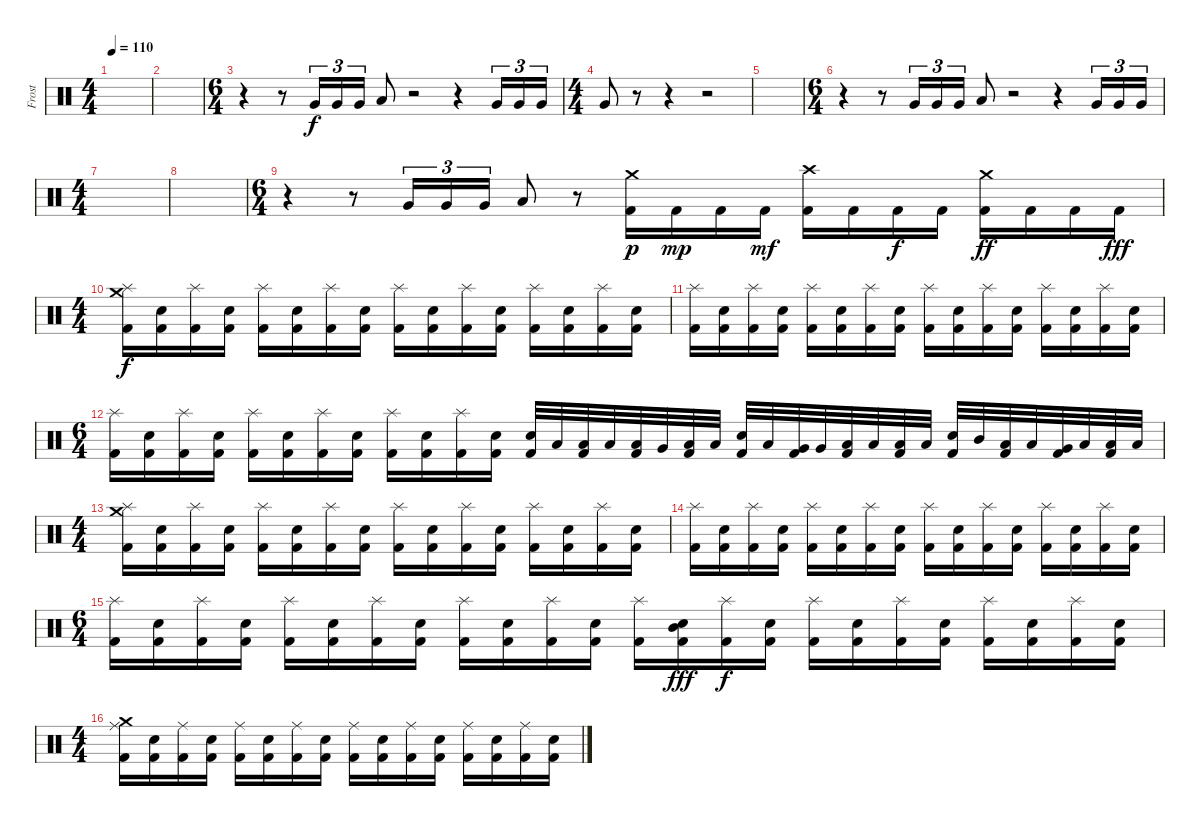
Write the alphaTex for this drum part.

\track ("Frost" "Frost") {instrument percussion}
\staff {score}
\articulation defaults
\ts (4 4)
\tempo 110
\tempo 147
\tempo 110
\clef neutral
\ks c
|
|
\ts (6 4)
r.4 r.8 "Very Low Tom (hit)".16{tu (3 2)} "Very Low Tom (hit)".16{tu (3 2)} "Very Low Tom (hit)".16{tu (3 2)} "Low Tom (hit)".8 r.2 r.4 "Very Low Tom (hit)".16{tu (3 2)} "Very Low Tom (hit)".16{tu (3 2)} "Very Low Tom (hit)".16{tu (3 2)} |
\ts (4 4)
"Very Low Tom (hit)".8 r.8 r.4 r.2 |
|
\ts (6 4)
r.4 r.8 "Very Low Tom (hit)".16{tu (3 2)} "Very Low Tom (hit)".16{tu (3 2)} "Very Low Tom (hit)".16{tu (3 2)} "Low Tom (hit)".8 r.2 r.4 "Very Low Tom (hit)".16{tu (3 2)} "Very Low Tom (hit)".16{tu (3 2)} "Very Low Tom (hit)".16{tu (3 2)} |
\ts (4 4)
|
|
\ts (6 4)
r.4 r.8 "Very Low Tom (hit)".16{tu (3 2)} "Very Low Tom (hit)".16{tu (3 2)} "Very Low Tom (hit)".16{tu (3 2)} "Low Tom (hit)".8 r.8 ("Kick (hit) 2" "Crash medium (hit)").16{dy p} "Kick (hit) 2".16{dy mp} "Kick (hit) 2".16 "Kick (hit) 2".16{dy mf} ("Kick (hit) 2" "Crash high (hit)").16 "Kick (hit) 2".16 "Kick (hit) 2".16{dy f} "Kick (hit) 2".16 ("Kick (hit) 2" "Crash medium (hit)").16{dy ff} "Kick (hit) 2".16 "Kick (hit) 2".16 "Kick (hit) 2".16{dy fff} |
\ts (4 4)
("Kick (hit) 2" "Crash medium (hit)" "Splash (hit)").16{dy f} ("Kick (hit) 2" "Electric Snare (hit)").16 ("Kick (hit) 2" "Splash (hit)").16 ("Kick (hit) 2" "Electric Snare (hit)").16 ("Kick (hit) 2" "Splash (hit)").16 ("Kick (hit) 2" "Electric Snare (hit)").16 ("Kick (hit) 2" "Splash (hit)").16 ("Kick (hit) 2" "Electric Snare (hit)").16 ("Kick (hit) 2" "Splash (hit)").16 ("Kick (hit) 2" "Electric Snare (hit)").16 ("Kick (hit) 2" "Splash (hit)").16 ("Kick (hit) 2" "Electric Snare (hit)").16 ("Kick (hit) 2" "Splash (hit)").16 ("Kick (hit) 2" "Electric Snare (hit)").16 ("Kick (hit) 2" "Splash (hit)").16 ("Kick (hit) 2" "Electric Snare (hit)").16 |
("Kick (hit) 2" "Splash (hit)").16 ("Kick (hit) 2" "Electric Snare (hit)").16 ("Kick (hit) 2" "Splash (hit)").16 ("Kick (hit) 2" "Electric Snare (hit)").16 ("Kick (hit) 2" "Splash (hit)").16 ("Kick (hit) 2" "Electric Snare (hit)").16 ("Kick (hit) 2" "Splash (hit)").16 ("Kick (hit) 2" "Electric Snare (hit)").16 ("Kick (hit) 2" "Splash (hit)").16 ("Kick (hit) 2" "Electric Snare (hit)").16 ("Kick (hit) 2" "Splash (hit)").16 ("Kick (hit) 2" "Electric Snare (hit)").16 ("Kick (hit) 2" "Splash (hit)").16 ("Kick (hit) 2" "Electric Snare (hit)").16 ("Kick (hit) 2" "Splash (hit)").16 ("Kick (hit) 2" "Electric Snare (hit)").16 |
\ts (6 4)
("Kick (hit) 2" "Splash (hit)").16 ("Kick (hit) 2" "Electric Snare (hit)").16 ("Kick (hit) 2" "Splash (hit)").16 ("Kick (hit) 2" "Electric Snare (hit)").16 ("Kick (hit) 2" "Splash (hit)").16 ("Kick (hit) 2" "Electric Snare (hit)").16 ("Kick (hit) 2" "Splash (hit)").16 ("Kick (hit) 2" "Electric Snare (hit)").16 ("Kick (hit) 2" "Splash (hit)").16 ("Kick (hit) 2" "Electric Snare (hit)").16 ("Kick (hit) 2" "Splash (hit)").16 ("Kick (hit) 2" "Electric Snare (hit)").16 ("Kick (hit) 2" "Electric Snare (hit)").32 "Low Tom (hit)".32 ("Kick (hit) 2" "Low Tom (hit)").32 "Low Tom (hit)".32 ("Kick (hit) 2" "Low Tom (hit)").32 "Very Low Tom (hit)".32 ("Kick (hit) 2" "Low Floor Tom (hit)").32 "Low Floor Tom (hit)".32 ("Kick (hit) 2" "Electric Snare (hit)").32 "Low Tom (hit)".32 ("Kick (hit) 2" "Very Low Tom (hit)").32 "Very Low Tom (hit)".32 ("Kick (hit) 2" "Low Floor Tom (hit)").32 "Low Floor Tom (hit)".32 ("Kick (hit) 2" "Low Tom (hit)").32 "Low Tom (hit)".32 ("Kick (hit) 2" "Electric Snare (hit)").32 "Mid Tom (hit)".32 ("Kick (hit) 2" "Low Tom (hit)").32 "Low Tom (hit)".32 ("Kick (hit) 2" "Very Low Tom (hit)").32 "Low Floor Tom (hit)".32 ("Kick (hit) 2" "Low Tom (hit)").32 "Low Floor Tom (hit)".32 |
\ts (4 4)
("Kick (hit) 2" "Crash medium (hit)" "Splash (hit)").16 ("Kick (hit) 2" "Electric Snare (hit)").16 ("Kick (hit) 2" "Splash (hit)").16 ("Kick (hit) 2" "Electric Snare (hit)").16 ("Kick (hit) 2" "Splash (hit)").16 ("Kick (hit) 2" "Electric Snare (hit)").16 ("Kick (hit) 2" "Splash (hit)").16 ("Kick (hit) 2" "Electric Snare (hit)").16 ("Kick (hit) 2" "Splash (hit)").16 ("Kick (hit) 2" "Electric Snare (hit)").16 ("Kick (hit) 2" "Splash (hit)").16 ("Kick (hit) 2" "Electric Snare (hit)").16 ("Kick (hit) 2" "Splash (hit)").16 ("Kick (hit) 2" "Electric Snare (hit)").16 ("Kick (hit) 2" "Splash (hit)").16 ("Kick (hit) 2" "Electric Snare (hit)").16 |
("Kick (hit) 2" "Splash (hit)").16 ("Kick (hit) 2" "Electric Snare (hit)").16 ("Kick (hit) 2" "Splash (hit)").16 ("Kick (hit) 2" "Electric Snare (hit)").16 ("Kick (hit) 2" "Splash (hit)").16 ("Kick (hit) 2" "Electric Snare (hit)").16 ("Kick (hit) 2" "Splash (hit)").16 ("Kick (hit) 2" "Electric Snare (hit)").16 ("Kick (hit) 2" "Splash (hit)").16 ("Kick (hit) 2" "Electric Snare (hit)").16 ("Kick (hit) 2" "Splash (hit)").16 ("Kick (hit) 2" "Electric Snare (hit)").16 ("Kick (hit) 2" "Splash (hit)").16 ("Kick (hit) 2" "Electric Snare (hit)").16 ("Kick (hit) 2" "Splash (hit)").16 ("Kick (hit) 2" "Electric Snare (hit)").16 |
\ts (6 4)
("Kick (hit) 2" "Splash (hit)").16 ("Kick (hit) 2" "Electric Snare (hit)").16 ("Kick (hit) 2" "Splash (hit)").16 ("Kick (hit) 2" "Electric Snare (hit)").16 ("Kick (hit) 2" "Splash (hit)").16 ("Kick (hit) 2" "Electric Snare (hit)").16 ("Kick (hit) 2" "Splash (hit)").16 ("Kick (hit) 2" "Electric Snare (hit)").16 ("Kick (hit) 2" "Splash (hit)").16 ("Kick (hit) 2" "Electric Snare (hit)").16 ("Kick (hit) 2" "Splash (hit)").16 ("Kick (hit) 2" "Electric Snare (hit)").16 ("Kick (hit) 2" "Splash (hit)").16 ("Kick (hit) 2" "Mid Tom (hit)" "Electric Snare (hit)").16{dy fff} ("Kick (hit) 2" "Splash (hit)").16{dy f} ("Kick (hit) 2" "Electric Snare (hit)").16 ("Kick (hit) 2" "Splash (hit)").16 ("Kick (hit) 2" "Electric Snare (hit)").16 ("Kick (hit) 2" "Splash (hit)").16 ("Kick (hit) 2" "Electric Snare (hit)").16 ("Kick (hit) 2" "Splash (hit)").16 ("Kick (hit) 2" "Electric Snare (hit)").16 ("Kick (hit) 2" "Splash (hit)").16 ("Kick (hit) 2" "Electric Snare (hit)").16 |
\ts (4 4)
("Kick (hit) 2" "Crash medium (hit)" "Ride (middle)").16 ("Kick (hit) 2" "Electric Snare (hit)").16 ("Kick (hit) 2" "Ride (middle)").16 ("Kick (hit) 2" "Electric Snare (hit)").16 ("Kick (hit) 2" "Ride (middle)").16 ("Kick (hit) 2" "Electric Snare (hit)").16 ("Kick (hit) 2" "Ride (middle)").16 ("Kick (hit) 2" "Electric Snare (hit)").16 ("Kick (hit) 2" "Ride (middle)").16 ("Kick (hit) 2" "Electric Snare (hit)").16 ("Kick (hit) 2" "Ride (middle)").16 ("Kick (hit) 2" "Electric Snare (hit)").16 ("Kick (hit) 2" "Ride (middle)").16 ("Kick (hit) 2" "Electric Snare (hit)").16 ("Kick (hit) 2" "Ride (middle)").16 ("Kick (hit) 2" "Electric Snare (hit)").16
